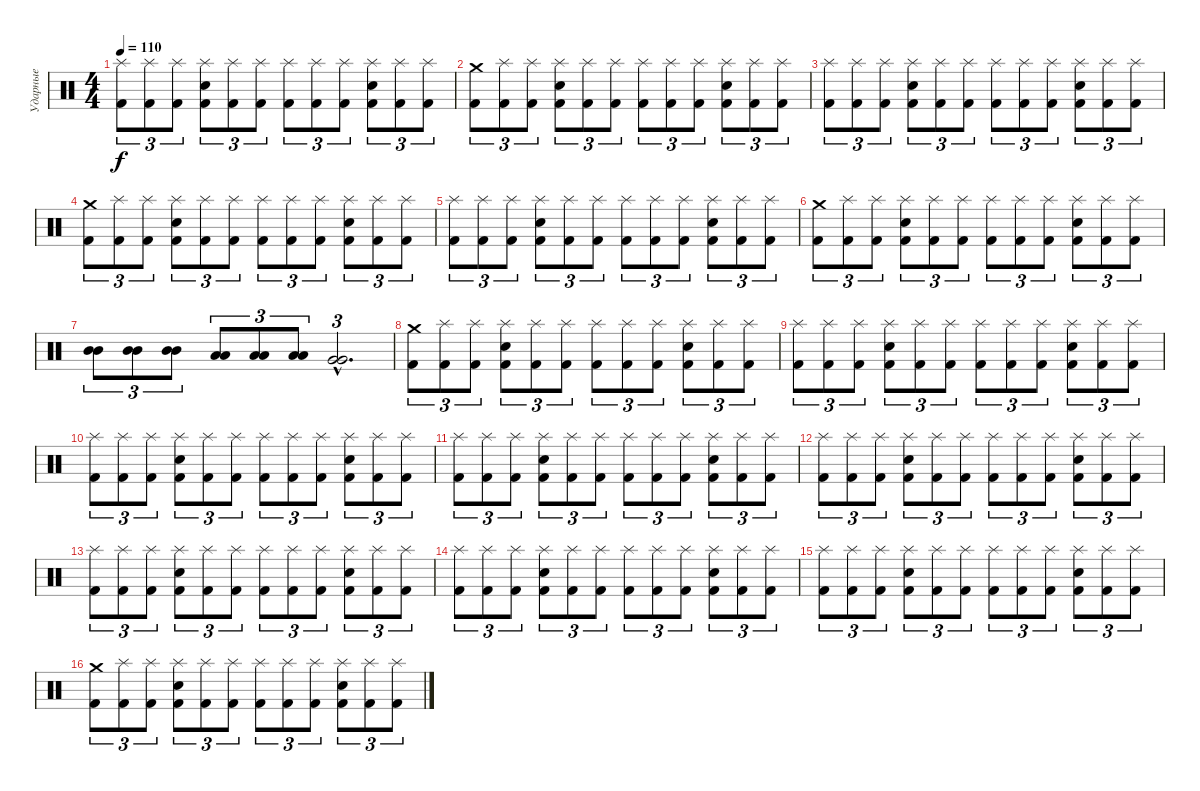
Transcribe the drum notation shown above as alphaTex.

\track ("Ударные" "Ударные") {instrument percussion}
\staff {score}
\articulation defaults
\ts (4 4)
\tempo 110
\clef neutral
\ks c
("Splash (hit)" "Kick (hit) 2").8{tu (3 2) dy f} ("Splash (hit)" "Kick (hit) 2").8{tu (3 2)} ("Splash (hit)" "Kick (hit) 2").8{tu (3 2)} ("Splash (hit)" "Electric Snare (hit)" "Kick (hit) 2").8{tu (3 2)} ("Splash (hit)" "Kick (hit) 2").8{tu (3 2)} ("Splash (hit)" "Kick (hit) 2").8{tu (3 2)} ("Splash (hit)" "Kick (hit) 2").8{tu (3 2)} ("Splash (hit)" "Kick (hit) 2").8{tu (3 2)} ("Splash (hit)" "Kick (hit) 2").8{tu (3 2)} ("Splash (hit)" "Electric Snare (hit)" "Kick (hit) 2").8{tu (3 2)} ("Splash (hit)" "Kick (hit) 2").8{tu (3 2)} ("Splash (hit)" "Kick (hit) 2").8{tu (3 2)} |
("Crash medium (hit)" "Kick (hit) 2").8{tu (3 2)} ("Splash (hit)" "Kick (hit) 2").8{tu (3 2)} ("Splash (hit)" "Kick (hit) 2").8{tu (3 2)} ("Splash (hit)" "Electric Snare (hit)" "Kick (hit) 2").8{tu (3 2)} ("Splash (hit)" "Kick (hit) 2").8{tu (3 2)} ("Splash (hit)" "Kick (hit) 2").8{tu (3 2)} ("Splash (hit)" "Kick (hit) 2").8{tu (3 2)} ("Splash (hit)" "Kick (hit) 2").8{tu (3 2)} ("Splash (hit)" "Kick (hit) 2").8{tu (3 2)} ("Splash (hit)" "Electric Snare (hit)" "Kick (hit) 2").8{tu (3 2)} ("Splash (hit)" "Kick (hit) 2").8{tu (3 2)} ("Splash (hit)" "Kick (hit) 2").8{tu (3 2)} |
("Splash (hit)" "Kick (hit) 2").8{tu (3 2)} ("Splash (hit)" "Kick (hit) 2").8{tu (3 2)} ("Splash (hit)" "Kick (hit) 2").8{tu (3 2)} ("Splash (hit)" "Electric Snare (hit)" "Kick (hit) 2").8{tu (3 2)} ("Splash (hit)" "Kick (hit) 2").8{tu (3 2)} ("Splash (hit)" "Kick (hit) 2").8{tu (3 2)} ("Splash (hit)" "Kick (hit) 2").8{tu (3 2)} ("Splash (hit)" "Kick (hit) 2").8{tu (3 2)} ("Splash (hit)" "Kick (hit) 2").8{tu (3 2)} ("Splash (hit)" "Electric Snare (hit)" "Kick (hit) 2").8{tu (3 2)} ("Splash (hit)" "Kick (hit) 2").8{tu (3 2)} ("Splash (hit)" "Kick (hit) 2").8{tu (3 2)} |
("Crash medium (hit)" "Kick (hit) 2").8{tu (3 2)} ("Splash (hit)" "Kick (hit) 2").8{tu (3 2)} ("Splash (hit)" "Kick (hit) 2").8{tu (3 2)} ("Splash (hit)" "Electric Snare (hit)" "Kick (hit) 2").8{tu (3 2)} ("Splash (hit)" "Kick (hit) 2").8{tu (3 2)} ("Splash (hit)" "Kick (hit) 2").8{tu (3 2)} ("Splash (hit)" "Kick (hit) 2").8{tu (3 2)} ("Splash (hit)" "Kick (hit) 2").8{tu (3 2)} ("Splash (hit)" "Kick (hit) 2").8{tu (3 2)} ("Splash (hit)" "Electric Snare (hit)" "Kick (hit) 2").8{tu (3 2)} ("Splash (hit)" "Kick (hit) 2").8{tu (3 2)} ("Splash (hit)" "Kick (hit) 2").8{tu (3 2)} |
("Splash (hit)" "Kick (hit) 2").8{tu (3 2)} ("Splash (hit)" "Kick (hit) 2").8{tu (3 2)} ("Splash (hit)" "Kick (hit) 2").8{tu (3 2)} ("Splash (hit)" "Electric Snare (hit)" "Kick (hit) 2").8{tu (3 2)} ("Splash (hit)" "Kick (hit) 2").8{tu (3 2)} ("Splash (hit)" "Kick (hit) 2").8{tu (3 2)} ("Splash (hit)" "Kick (hit) 2").8{tu (3 2)} ("Splash (hit)" "Kick (hit) 2").8{tu (3 2)} ("Splash (hit)" "Kick (hit) 2").8{tu (3 2)} ("Splash (hit)" "Electric Snare (hit)" "Kick (hit) 2").8{tu (3 2)} ("Splash (hit)" "Kick (hit) 2").8{tu (3 2)} ("Splash (hit)" "Kick (hit) 2").8{tu (3 2)} |
("Crash medium (hit)" "Kick (hit) 2").8{tu (3 2)} ("Splash (hit)" "Kick (hit) 2").8{tu (3 2)} ("Splash (hit)" "Kick (hit) 2").8{tu (3 2)} ("Splash (hit)" "Electric Snare (hit)" "Kick (hit) 2").8{tu (3 2)} ("Splash (hit)" "Kick (hit) 2").8{tu (3 2)} ("Splash (hit)" "Kick (hit) 2").8{tu (3 2)} ("Splash (hit)" "Kick (hit) 2").8{tu (3 2)} ("Splash (hit)" "Kick (hit) 2").8{tu (3 2)} ("Splash (hit)" "Kick (hit) 2").8{tu (3 2)} ("Splash (hit)" "Electric Snare (hit)" "Kick (hit) 2").8{tu (3 2)} ("Splash (hit)" "Kick (hit) 2").8{tu (3 2)} ("Splash (hit)" "Kick (hit) 2").8{tu (3 2)} |
("Mid Tom (hit)" "Mid Tom (hit)").8{tu (3 2)} ("Mid Tom (hit)" "Mid Tom (hit)").8{tu (3 2)} ("Mid Tom (hit)" "Mid Tom (hit)").8{tu (3 2)} ("Low Tom (hit)" "Low Tom (hit)").8{tu (3 2)} ("Low Tom (hit)" "Low Tom (hit)").8{tu (3 2)} ("Low Tom (hit)" "Low Tom (hit)").8{tu (3 2)} ("Very Low Tom (hit)"{hac} "Very Low Tom (hit)"{hac}).2{d tu (3 2)} |
("Crash medium (hit)" "Kick (hit) 2").8{tu (3 2)} ("Splash (hit)" "Kick (hit) 2").8{tu (3 2)} ("Splash (hit)" "Kick (hit) 2").8{tu (3 2)} ("Splash (hit)" "Electric Snare (hit)" "Kick (hit) 2").8{tu (3 2)} ("Splash (hit)" "Kick (hit) 2").8{tu (3 2)} ("Splash (hit)" "Kick (hit) 2").8{tu (3 2)} ("Splash (hit)" "Kick (hit) 2").8{tu (3 2)} ("Splash (hit)" "Kick (hit) 2").8{tu (3 2)} ("Splash (hit)" "Kick (hit) 2").8{tu (3 2)} ("Splash (hit)" "Electric Snare (hit)" "Kick (hit) 2").8{tu (3 2)} ("Splash (hit)" "Kick (hit) 2").8{tu (3 2)} ("Splash (hit)" "Kick (hit) 2").8{tu (3 2)} |
("Splash (hit)" "Kick (hit) 2").8{tu (3 2)} ("Splash (hit)" "Kick (hit) 2").8{tu (3 2)} ("Splash (hit)" "Kick (hit) 2").8{tu (3 2)} ("Splash (hit)" "Electric Snare (hit)" "Kick (hit) 2").8{tu (3 2)} ("Splash (hit)" "Kick (hit) 2").8{tu (3 2)} ("Splash (hit)" "Kick (hit) 2").8{tu (3 2)} ("Splash (hit)" "Kick (hit) 2").8{tu (3 2)} ("Splash (hit)" "Kick (hit) 2").8{tu (3 2)} ("Splash (hit)" "Kick (hit) 2").8{tu (3 2)} ("Splash (hit)" "Electric Snare (hit)" "Kick (hit) 2").8{tu (3 2)} ("Splash (hit)" "Kick (hit) 2").8{tu (3 2)} ("Splash (hit)" "Kick (hit) 2").8{tu (3 2)} |
("Splash (hit)" "Kick (hit) 2").8{tu (3 2)} ("Splash (hit)" "Kick (hit) 2").8{tu (3 2)} ("Splash (hit)" "Kick (hit) 2").8{tu (3 2)} ("Splash (hit)" "Electric Snare (hit)" "Kick (hit) 2").8{tu (3 2)} ("Splash (hit)" "Kick (hit) 2").8{tu (3 2)} ("Splash (hit)" "Kick (hit) 2").8{tu (3 2)} ("Splash (hit)" "Kick (hit) 2").8{tu (3 2)} ("Splash (hit)" "Kick (hit) 2").8{tu (3 2)} ("Splash (hit)" "Kick (hit) 2").8{tu (3 2)} ("Splash (hit)" "Electric Snare (hit)" "Kick (hit) 2").8{tu (3 2)} ("Splash (hit)" "Kick (hit) 2").8{tu (3 2)} ("Splash (hit)" "Kick (hit) 2").8{tu (3 2)} |
("Splash (hit)" "Kick (hit) 2").8{tu (3 2)} ("Splash (hit)" "Kick (hit) 2").8{tu (3 2)} ("Splash (hit)" "Kick (hit) 2").8{tu (3 2)} ("Splash (hit)" "Electric Snare (hit)" "Kick (hit) 2").8{tu (3 2)} ("Splash (hit)" "Kick (hit) 2").8{tu (3 2)} ("Splash (hit)" "Kick (hit) 2").8{tu (3 2)} ("Splash (hit)" "Kick (hit) 2").8{tu (3 2)} ("Splash (hit)" "Kick (hit) 2").8{tu (3 2)} ("Splash (hit)" "Kick (hit) 2").8{tu (3 2)} ("Splash (hit)" "Electric Snare (hit)" "Kick (hit) 2").8{tu (3 2)} ("Splash (hit)" "Kick (hit) 2").8{tu (3 2)} ("Splash (hit)" "Kick (hit) 2").8{tu (3 2)} |
("Splash (hit)" "Kick (hit) 2").8{tu (3 2)} ("Splash (hit)" "Kick (hit) 2").8{tu (3 2)} ("Splash (hit)" "Kick (hit) 2").8{tu (3 2)} ("Splash (hit)" "Electric Snare (hit)" "Kick (hit) 2").8{tu (3 2)} ("Splash (hit)" "Kick (hit) 2").8{tu (3 2)} ("Splash (hit)" "Kick (hit) 2").8{tu (3 2)} ("Splash (hit)" "Kick (hit) 2").8{tu (3 2)} ("Splash (hit)" "Kick (hit) 2").8{tu (3 2)} ("Splash (hit)" "Kick (hit) 2").8{tu (3 2)} ("Splash (hit)" "Electric Snare (hit)" "Kick (hit) 2").8{tu (3 2)} ("Splash (hit)" "Kick (hit) 2").8{tu (3 2)} ("Splash (hit)" "Kick (hit) 2").8{tu (3 2)} |
("Splash (hit)" "Kick (hit) 2").8{tu (3 2)} ("Splash (hit)" "Kick (hit) 2").8{tu (3 2)} ("Splash (hit)" "Kick (hit) 2").8{tu (3 2)} ("Splash (hit)" "Electric Snare (hit)" "Kick (hit) 2").8{tu (3 2)} ("Splash (hit)" "Kick (hit) 2").8{tu (3 2)} ("Splash (hit)" "Kick (hit) 2").8{tu (3 2)} ("Splash (hit)" "Kick (hit) 2").8{tu (3 2)} ("Splash (hit)" "Kick (hit) 2").8{tu (3 2)} ("Splash (hit)" "Kick (hit) 2").8{tu (3 2)} ("Splash (hit)" "Electric Snare (hit)" "Kick (hit) 2").8{tu (3 2)} ("Splash (hit)" "Kick (hit) 2").8{tu (3 2)} ("Splash (hit)" "Kick (hit) 2").8{tu (3 2)} |
("Splash (hit)" "Kick (hit) 2").8{tu (3 2)} ("Splash (hit)" "Kick (hit) 2").8{tu (3 2)} ("Splash (hit)" "Kick (hit) 2").8{tu (3 2)} ("Splash (hit)" "Electric Snare (hit)" "Kick (hit) 2").8{tu (3 2)} ("Splash (hit)" "Kick (hit) 2").8{tu (3 2)} ("Splash (hit)" "Kick (hit) 2").8{tu (3 2)} ("Splash (hit)" "Kick (hit) 2").8{tu (3 2)} ("Splash (hit)" "Kick (hit) 2").8{tu (3 2)} ("Splash (hit)" "Kick (hit) 2").8{tu (3 2)} ("Splash (hit)" "Electric Snare (hit)" "Kick (hit) 2").8{tu (3 2)} ("Splash (hit)" "Kick (hit) 2").8{tu (3 2)} ("Splash (hit)" "Kick (hit) 2").8{tu (3 2)} |
("Splash (hit)" "Kick (hit) 2").8{tu (3 2)} ("Splash (hit)" "Kick (hit) 2").8{tu (3 2)} ("Splash (hit)" "Kick (hit) 2").8{tu (3 2)} ("Splash (hit)" "Electric Snare (hit)" "Kick (hit) 2").8{tu (3 2)} ("Splash (hit)" "Kick (hit) 2").8{tu (3 2)} ("Splash (hit)" "Kick (hit) 2").8{tu (3 2)} ("Splash (hit)" "Kick (hit) 2").8{tu (3 2)} ("Splash (hit)" "Kick (hit) 2").8{tu (3 2)} ("Splash (hit)" "Kick (hit) 2").8{tu (3 2)} ("Splash (hit)" "Electric Snare (hit)" "Kick (hit) 2").8{tu (3 2)} ("Splash (hit)" "Kick (hit) 2").8{tu (3 2)} ("Splash (hit)" "Kick (hit) 2").8{tu (3 2)} |
("Crash medium (hit)" "Kick (hit) 2").8{tu (3 2)} ("Splash (hit)" "Kick (hit) 2").8{tu (3 2)} ("Splash (hit)" "Kick (hit) 2").8{tu (3 2)} ("Splash (hit)" "Electric Snare (hit)" "Kick (hit) 2").8{tu (3 2)} ("Splash (hit)" "Kick (hit) 2").8{tu (3 2)} ("Splash (hit)" "Kick (hit) 2").8{tu (3 2)} ("Splash (hit)" "Kick (hit) 2").8{tu (3 2)} ("Splash (hit)" "Kick (hit) 2").8{tu (3 2)} ("Splash (hit)" "Kick (hit) 2").8{tu (3 2)} ("Splash (hit)" "Electric Snare (hit)" "Kick (hit) 2").8{tu (3 2)} ("Splash (hit)" "Kick (hit) 2").8{tu (3 2)} ("Splash (hit)" "Kick (hit) 2").8{tu (3 2)}
